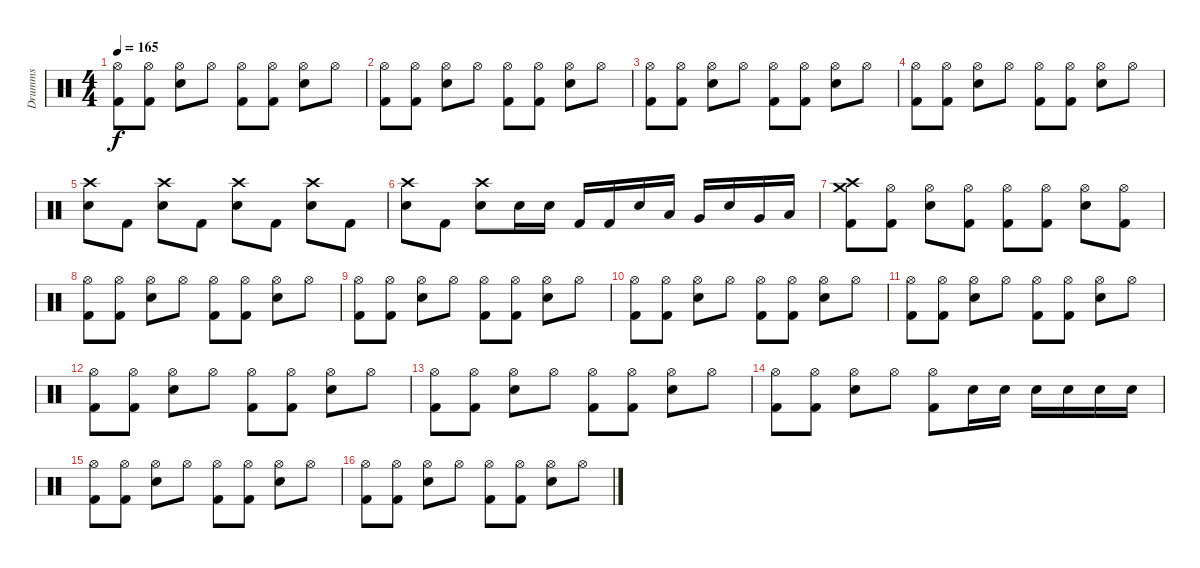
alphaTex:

\track ("Drumms" "Drumms") {instrument percussion}
\staff {score}
\articulation defaults
\ts (4 4)
\tempo 165
\clef neutral
\ks c
("Hi-Hat (open)" "Kick (hit) 2").8{dy f} ("Hi-Hat (open)" "Kick (hit) 2").8 ("Hi-Hat (open)" "Electric Snare (hit)").8 "Hi-Hat (open)".8 ("Hi-Hat (open)" "Kick (hit) 2").8 ("Hi-Hat (open)" "Kick (hit) 2").8 ("Hi-Hat (open)" "Electric Snare (hit)").8 "Hi-Hat (open)".8 |
("Hi-Hat (open)" "Kick (hit) 2").8 ("Hi-Hat (open)" "Kick (hit) 2").8 ("Hi-Hat (open)" "Electric Snare (hit)").8 "Hi-Hat (open)".8 ("Hi-Hat (open)" "Kick (hit) 2").8 ("Hi-Hat (open)" "Kick (hit) 2").8 ("Hi-Hat (open)" "Electric Snare (hit)").8 "Hi-Hat (open)".8 |
("Hi-Hat (open)" "Kick (hit) 2").8 ("Hi-Hat (open)" "Kick (hit) 2").8 ("Hi-Hat (open)" "Electric Snare (hit)").8 "Hi-Hat (open)".8 ("Hi-Hat (open)" "Kick (hit) 2").8 ("Hi-Hat (open)" "Kick (hit) 2").8 ("Hi-Hat (open)" "Electric Snare (hit)").8 "Hi-Hat (open)".8 |
("Hi-Hat (open)" "Kick (hit) 2").8 ("Hi-Hat (open)" "Kick (hit) 2").8 ("Hi-Hat (open)" "Electric Snare (hit)").8 "Hi-Hat (open)".8 ("Hi-Hat (open)" "Kick (hit) 2").8 ("Hi-Hat (open)" "Kick (hit) 2").8 ("Hi-Hat (open)" "Electric Snare (hit)").8 "Hi-Hat (open)".8 |
("Crash high (hit)" "Electric Snare (hit)").8 "Kick (hit) 2".8 ("Crash high (hit)" "Electric Snare (hit)").8 "Kick (hit) 2".8 ("Crash high (hit)" "Electric Snare (hit)").8 "Kick (hit) 2".8 ("Crash high (hit)" "Electric Snare (hit)").8 "Kick (hit) 2".8 |
("Crash high (hit)" "Electric Snare (hit)").8 "Kick (hit) 2".8 ("Crash high (hit)" "Electric Snare (hit)").8 "Electric Snare (hit)".16 "Electric Snare (hit)".16 "Kick (hit) 2".16 "Kick (hit) 2".16 "Electric Snare (hit)".16 "Low Tom (hit)".16 "Very Low Tom (hit)".16 "Electric Snare (hit)".16 "Very Low Tom (hit)".16 "Low Tom (hit)".16 |
("Crash medium (hit)" "Crash high (hit)" "Kick (hit) 2").8 ("Hi-Hat (open)" "Kick (hit) 2").8 ("Hi-Hat (open)" "Electric Snare (hit)").8 ("Hi-Hat (open)" "Kick (hit) 2").8 ("Hi-Hat (open)" "Kick (hit) 2").8 ("Hi-Hat (open)" "Kick (hit) 2").8 ("Hi-Hat (open)" "Electric Snare (hit)").8 ("Hi-Hat (open)" "Kick (hit) 2").8 |
("Hi-Hat (open)" "Kick (hit) 2").8 ("Hi-Hat (open)" "Kick (hit) 2").8 ("Hi-Hat (open)" "Electric Snare (hit)").8 "Hi-Hat (open)".8 ("Hi-Hat (open)" "Kick (hit) 2").8 ("Hi-Hat (open)" "Kick (hit) 2").8 ("Hi-Hat (open)" "Electric Snare (hit)").8 "Hi-Hat (open)".8 |
("Hi-Hat (open)" "Kick (hit) 2").8 ("Hi-Hat (open)" "Kick (hit) 2").8 ("Hi-Hat (open)" "Electric Snare (hit)").8 "Hi-Hat (open)".8 ("Hi-Hat (open)" "Kick (hit) 2").8 ("Hi-Hat (open)" "Kick (hit) 2").8 ("Hi-Hat (open)" "Electric Snare (hit)").8 "Hi-Hat (open)".8 |
("Hi-Hat (open)" "Kick (hit) 2").8 ("Hi-Hat (open)" "Kick (hit) 2").8 ("Hi-Hat (open)" "Electric Snare (hit)").8 "Hi-Hat (open)".8 ("Hi-Hat (open)" "Kick (hit) 2").8 ("Hi-Hat (open)" "Kick (hit) 2").8 ("Hi-Hat (open)" "Electric Snare (hit)").8 "Hi-Hat (open)".8 |
("Hi-Hat (open)" "Kick (hit) 2").8 ("Hi-Hat (open)" "Kick (hit) 2").8 ("Hi-Hat (open)" "Electric Snare (hit)").8 "Hi-Hat (open)".8 ("Hi-Hat (open)" "Kick (hit) 2").8 ("Hi-Hat (open)" "Kick (hit) 2").8 ("Hi-Hat (open)" "Electric Snare (hit)").8 "Hi-Hat (open)".8 |
("Hi-Hat (open)" "Kick (hit) 2").8 ("Hi-Hat (open)" "Kick (hit) 2").8 ("Hi-Hat (open)" "Electric Snare (hit)").8 "Hi-Hat (open)".8 ("Hi-Hat (open)" "Kick (hit) 2").8 ("Hi-Hat (open)" "Kick (hit) 2").8 ("Hi-Hat (open)" "Electric Snare (hit)").8 "Hi-Hat (open)".8 |
("Hi-Hat (open)" "Kick (hit) 2").8 ("Hi-Hat (open)" "Kick (hit) 2").8 ("Hi-Hat (open)" "Electric Snare (hit)").8 "Hi-Hat (open)".8 ("Hi-Hat (open)" "Kick (hit) 2").8 ("Hi-Hat (open)" "Kick (hit) 2").8 ("Hi-Hat (open)" "Electric Snare (hit)").8 "Hi-Hat (open)".8 |
("Hi-Hat (open)" "Kick (hit) 2").8 ("Hi-Hat (open)" "Kick (hit) 2").8 ("Hi-Hat (open)" "Electric Snare (hit)").8 "Hi-Hat (open)".8 ("Hi-Hat (open)" "Kick (hit) 2").8 "Electric Snare (hit)".16 "Electric Snare (hit)".16 "Electric Snare (hit)".16 "Electric Snare (hit)".16 "Electric Snare (hit)".16 "Electric Snare (hit)".16 |
("Hi-Hat (open)" "Kick (hit) 2").8 ("Hi-Hat (open)" "Kick (hit) 2").8 ("Hi-Hat (open)" "Electric Snare (hit)").8 "Hi-Hat (open)".8 ("Hi-Hat (open)" "Kick (hit) 2").8 ("Hi-Hat (open)" "Kick (hit) 2").8 ("Hi-Hat (open)" "Electric Snare (hit)").8 "Hi-Hat (open)".8 |
("Hi-Hat (open)" "Kick (hit) 2").8 ("Hi-Hat (open)" "Kick (hit) 2").8 ("Hi-Hat (open)" "Electric Snare (hit)").8 "Hi-Hat (open)".8 ("Hi-Hat (open)" "Kick (hit) 2").8 ("Hi-Hat (open)" "Kick (hit) 2").8 ("Hi-Hat (open)" "Electric Snare (hit)").8 "Hi-Hat (open)".8
